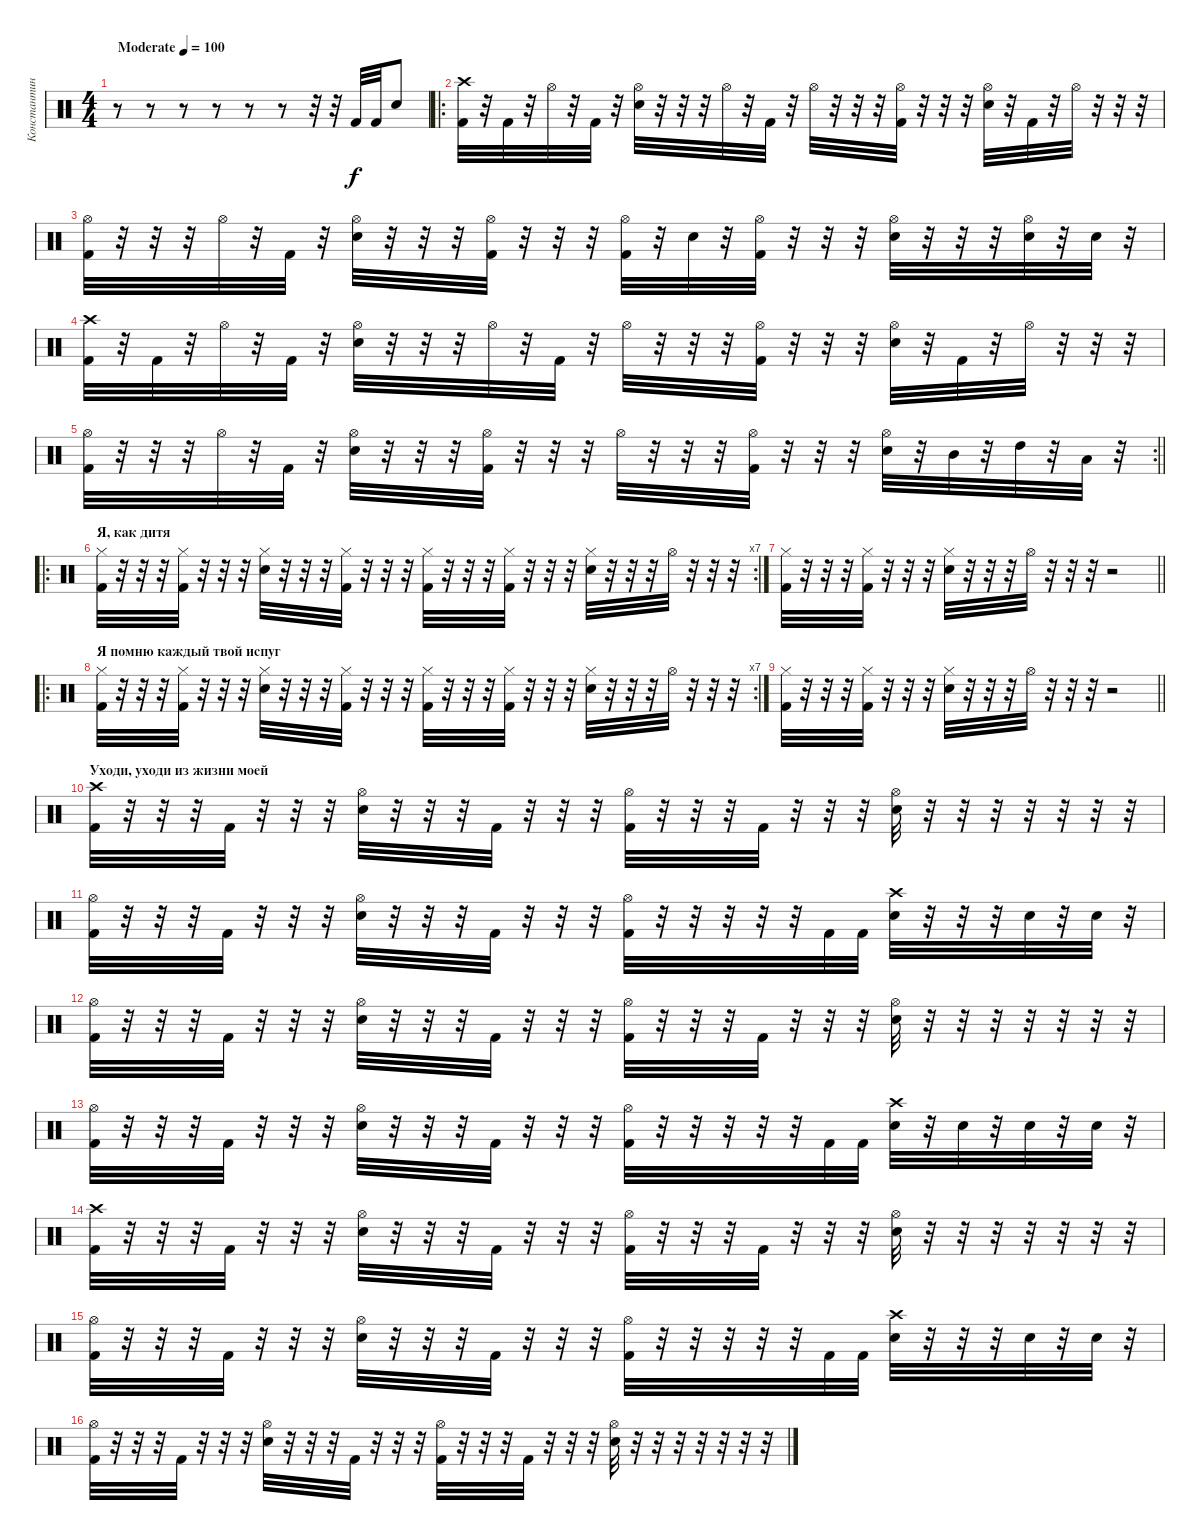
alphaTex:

\track ("Константин \"Салян\" Сальников" "Константин") {instrument percussion}
\staff {score}
\articulation defaults
\ts (4 4)
\tempo (100 "Moderate")
\clef neutral
\ks c
r.8{dy f} r.8 r.8 r.8 r.8 r.8 r.32 r.32 "Kick (hit) 2".32 "Kick (hit) 2".32 "Electric Snare (hit)".8 |
\ro
("Crash high (hit)" "Kick (hit) 2").32 r.32 "Kick (hit) 2".32 r.32 "Hi-Hat (open)".32 r.32 "Kick (hit) 2".32 r.32 ("Hi-Hat (open)" "Electric Snare (hit)").32 r.32 r.32 r.32 "Hi-Hat (open)".32 r.32 "Kick (hit) 2".32 r.32 "Hi-Hat (open)".32 r.32 r.32 r.32 ("Hi-Hat (open)" "Kick (hit) 2").32 r.32 r.32 r.32 ("Hi-Hat (open)" "Electric Snare (hit)").32 r.32 "Kick (hit) 2".32 r.32 "Hi-Hat (open)".32 r.32 r.32 r.32 |
("Hi-Hat (open)" "Kick (hit) 2").32 r.32 r.32 r.32 "Hi-Hat (open)".32 r.32 "Kick (hit) 2".32 r.32 ("Hi-Hat (open)" "Electric Snare (hit)").32 r.32 r.32 r.32 ("Hi-Hat (open)" "Kick (hit) 2").32 r.32 r.32 r.32 ("Hi-Hat (open)" "Kick (hit) 2").32 r.32 "Electric Snare (hit)".32 r.32 ("Hi-Hat (open)" "Kick (hit) 2").32 r.32 r.32 r.32 ("Hi-Hat (open)" "Electric Snare (hit)").32 r.32 r.32 r.32 ("Hi-Hat (open)" "Electric Snare (hit)").32 r.32 "Electric Snare (hit)".32 r.32 |
("Crash high (hit)" "Kick (hit) 2").32 r.32 "Kick (hit) 2".32 r.32 "Hi-Hat (open)".32 r.32 "Kick (hit) 2".32 r.32 ("Hi-Hat (open)" "Electric Snare (hit)").32 r.32 r.32 r.32 "Hi-Hat (open)".32 r.32 "Kick (hit) 2".32 r.32 "Hi-Hat (open)".32 r.32 r.32 r.32 ("Hi-Hat (open)" "Kick (hit) 2").32 r.32 r.32 r.32 ("Hi-Hat (open)" "Electric Snare (hit)").32 r.32 "Kick (hit) 2".32 r.32 "Hi-Hat (open)".32 r.32 r.32 r.32 |
\rc 2
\barLineRight lightlight
("Hi-Hat (open)" "Kick (hit) 2").32 r.32 r.32 r.32 "Hi-Hat (open)".32 r.32 "Kick (hit) 2".32 r.32 ("Hi-Hat (open)" "Electric Snare (hit)").32 r.32 r.32 r.32 ("Hi-Hat (open)" "Kick (hit) 2").32 r.32 r.32 r.32 "Hi-Hat (open)".32 r.32 r.32 r.32 ("Hi-Hat (open)" "Kick (hit) 2").32 r.32 r.32 r.32 ("Hi-Hat (open)" "Electric Snare (hit)").32 r.32 "Mid Tom (hit)".32 r.32 "High Tom (hit)".32 r.32 "Low Tom (hit)".32 r.32 |
\ro
\rc 7
\section ("" "Я, как дитя")
("Hi-Hat (closed)" "Kick (hit) 2").32 r.32 r.32 r.32 ("Hi-Hat (closed)" "Kick (hit) 2").32 r.32 r.32 r.32 ("Hi-Hat (closed)" "Electric Snare (hit)").32 r.32 r.32 r.32 ("Hi-Hat (closed)" "Kick (hit) 2").32 r.32 r.32 r.32 ("Hi-Hat (closed)" "Kick (hit) 2").32 r.32 r.32 r.32 ("Hi-Hat (closed)" "Kick (hit) 2").32 r.32 r.32 r.32 ("Hi-Hat (closed)" "Electric Snare (hit)").32 r.32 r.32 r.32 "Hi-Hat (open)".32 r.32 r.32 r.32 |
\barLineRight lightlight
("Hi-Hat (closed)" "Kick (hit) 2").32 r.32 r.32 r.32 ("Hi-Hat (closed)" "Kick (hit) 2").32 r.32 r.32 r.32 ("Hi-Hat (closed)" "Electric Snare (hit)").32 r.32 r.32 r.32 "Hi-Hat (open)".32 r.32 r.32 r.32 r.2 |
\ro
\rc 7
\section ("" "Я помню каждый твой испуг")
("Hi-Hat (closed)" "Kick (hit) 2").32 r.32 r.32 r.32 ("Hi-Hat (closed)" "Kick (hit) 2").32 r.32 r.32 r.32 ("Hi-Hat (closed)" "Electric Snare (hit)").32 r.32 r.32 r.32 ("Hi-Hat (closed)" "Kick (hit) 2").32 r.32 r.32 r.32 ("Hi-Hat (closed)" "Kick (hit) 2").32 r.32 r.32 r.32 ("Hi-Hat (closed)" "Kick (hit) 2").32 r.32 r.32 r.32 ("Hi-Hat (closed)" "Electric Snare (hit)").32 r.32 r.32 r.32 "Hi-Hat (open)".32 r.32 r.32 r.32 |
\barLineRight lightlight
("Hi-Hat (closed)" "Kick (hit) 2").32 r.32 r.32 r.32 ("Hi-Hat (closed)" "Kick (hit) 2").32 r.32 r.32 r.32 ("Hi-Hat (closed)" "Electric Snare (hit)").32 r.32 r.32 r.32 "Hi-Hat (open)".32 r.32 r.32 r.32 r.2 |
\section ("" "Уходи, уходи из жизни моей")
("Crash high (hit)" "Kick (hit) 2").32 r.32 r.32 r.32 "Kick (hit) 2".32 r.32 r.32 r.32 ("Hi-Hat (open)" "Electric Snare (hit)").32 r.32 r.32 r.32 "Kick (hit) 2".32 r.32 r.32 r.32 ("Hi-Hat (open)" "Kick (hit) 2").32 r.32 r.32 r.32 "Kick (hit) 2".32 r.32 r.32 r.32 ("Hi-Hat (open)" "Electric Snare (hit)").32 r.32 r.32 r.32 r.32 r.32 r.32 r.32 |
("Hi-Hat (open)" "Kick (hit) 2").32 r.32 r.32 r.32 "Kick (hit) 2".32 r.32 r.32 r.32 ("Hi-Hat (open)" "Electric Snare (hit)").32 r.32 r.32 r.32 "Kick (hit) 2".32 r.32 r.32 r.32 ("Hi-Hat (open)" "Kick (hit) 2").32 r.32 r.32 r.32 r.32 r.32 "Kick (hit) 2".32 "Kick (hit) 2".32 ("Crash high (hit)" "Electric Snare (hit)").32 r.32 r.32 r.32 "Electric Snare (hit)".32 r.32 "Electric Snare (hit)".32 r.32 |
("Hi-Hat (open)" "Kick (hit) 2").32 r.32 r.32 r.32 "Kick (hit) 2".32 r.32 r.32 r.32 ("Hi-Hat (open)" "Electric Snare (hit)").32 r.32 r.32 r.32 "Kick (hit) 2".32 r.32 r.32 r.32 ("Hi-Hat (open)" "Kick (hit) 2").32 r.32 r.32 r.32 "Kick (hit) 2".32 r.32 r.32 r.32 ("Hi-Hat (open)" "Electric Snare (hit)").32 r.32 r.32 r.32 r.32 r.32 r.32 r.32 |
("Hi-Hat (open)" "Kick (hit) 2").32 r.32 r.32 r.32 "Kick (hit) 2".32 r.32 r.32 r.32 ("Hi-Hat (open)" "Electric Snare (hit)").32 r.32 r.32 r.32 "Kick (hit) 2".32 r.32 r.32 r.32 ("Hi-Hat (open)" "Kick (hit) 2").32 r.32 r.32 r.32 r.32 r.32 "Kick (hit) 2".32 "Kick (hit) 2".32 ("Crash high (hit)" "Electric Snare (hit)").32 r.32 "Electric Snare (hit)".32 r.32 "Electric Snare (hit)".32 r.32 "Electric Snare (hit)".32 r.32 |
("Crash high (hit)" "Kick (hit) 2").32 r.32 r.32 r.32 "Kick (hit) 2".32 r.32 r.32 r.32 ("Hi-Hat (open)" "Electric Snare (hit)").32 r.32 r.32 r.32 "Kick (hit) 2".32 r.32 r.32 r.32 ("Hi-Hat (open)" "Kick (hit) 2").32 r.32 r.32 r.32 "Kick (hit) 2".32 r.32 r.32 r.32 ("Hi-Hat (open)" "Electric Snare (hit)").32 r.32 r.32 r.32 r.32 r.32 r.32 r.32 |
("Hi-Hat (open)" "Kick (hit) 2").32 r.32 r.32 r.32 "Kick (hit) 2".32 r.32 r.32 r.32 ("Hi-Hat (open)" "Electric Snare (hit)").32 r.32 r.32 r.32 "Kick (hit) 2".32 r.32 r.32 r.32 ("Hi-Hat (open)" "Kick (hit) 2").32 r.32 r.32 r.32 r.32 r.32 "Kick (hit) 2".32 "Kick (hit) 2".32 ("Crash high (hit)" "Electric Snare (hit)").32 r.32 r.32 r.32 "Electric Snare (hit)".32 r.32 "Electric Snare (hit)".32 r.32 |
("Hi-Hat (open)" "Kick (hit) 2").32 r.32 r.32 r.32 "Kick (hit) 2".32 r.32 r.32 r.32 ("Hi-Hat (open)" "Electric Snare (hit)").32 r.32 r.32 r.32 "Kick (hit) 2".32 r.32 r.32 r.32 ("Hi-Hat (open)" "Kick (hit) 2").32 r.32 r.32 r.32 "Kick (hit) 2".32 r.32 r.32 r.32 ("Hi-Hat (open)" "Electric Snare (hit)").32 r.32 r.32 r.32 r.32 r.32 r.32 r.32
